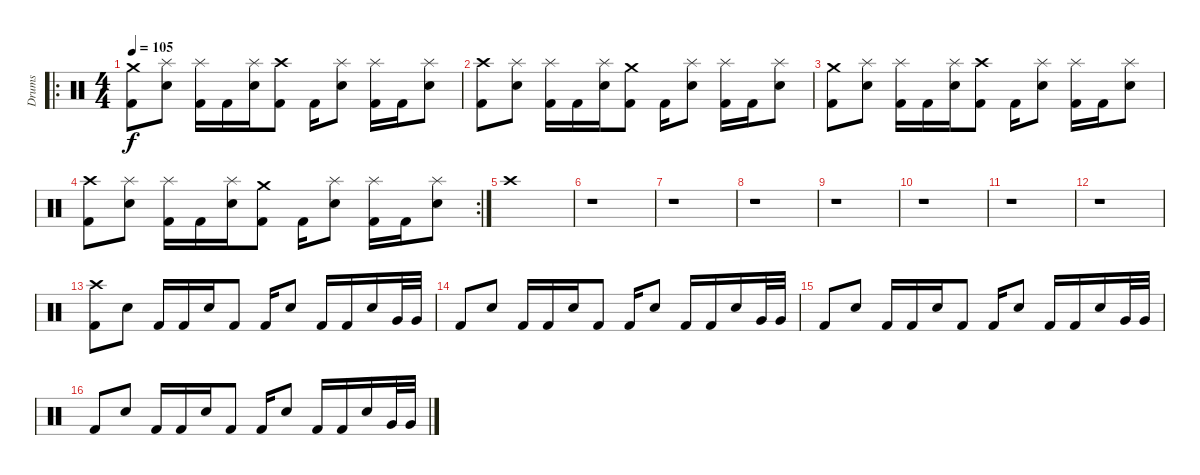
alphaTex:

\track ("Drums" "Drums") {instrument percussion}
\staff {score}
\articulation defaults
\ro
\ts (4 4)
\tempo 105
\clef neutral
\ks c
("Crash medium (hit)" "Kick (hit) 2").8{dy f} ("Splash (hit)" "Electric Snare (hit)").8 ("Splash (hit)" "Kick (hit) 2").16 "Kick (hit) 2".16 ("Splash (hit)" "Electric Snare (hit)").16 ("Crash high (hit)" "Kick (hit) 2").8 "Kick (hit) 2".16 ("Splash (hit)" "Electric Snare (hit)").8 ("Splash (hit)" "Kick (hit) 2").16 "Kick (hit) 2".16 ("Splash (hit)" "Electric Snare (hit)").8 |
("Crash high (hit)" "Kick (hit) 2").8 ("Splash (hit)" "Electric Snare (hit)").8 ("Splash (hit)" "Kick (hit) 2").16 "Kick (hit) 2".16 ("Splash (hit)" "Electric Snare (hit)").16 ("Crash medium (hit)" "Kick (hit) 2").8 "Kick (hit) 2".16 ("Splash (hit)" "Electric Snare (hit)").8 ("Splash (hit)" "Kick (hit) 2").16 "Kick (hit) 2".16 ("Splash (hit)" "Electric Snare (hit)").8 |
("Crash medium (hit)" "Kick (hit) 2").8 ("Splash (hit)" "Electric Snare (hit)").8 ("Splash (hit)" "Kick (hit) 2").16 "Kick (hit) 2".16 ("Splash (hit)" "Electric Snare (hit)").16 ("Crash high (hit)" "Kick (hit) 2").8 "Kick (hit) 2".16 ("Splash (hit)" "Electric Snare (hit)").8 ("Splash (hit)" "Kick (hit) 2").16 "Kick (hit) 2".16 ("Splash (hit)" "Electric Snare (hit)").8 |
\rc 2
("Crash high (hit)" "Kick (hit) 2").8 ("Splash (hit)" "Electric Snare (hit)").8 ("Splash (hit)" "Kick (hit) 2").16 "Kick (hit) 2".16 ("Splash (hit)" "Electric Snare (hit)").16 ("Crash medium (hit)" "Kick (hit) 2").8 "Kick (hit) 2".16 ("Splash (hit)" "Electric Snare (hit)").8 ("Splash (hit)" "Kick (hit) 2").16 "Kick (hit) 2".16 ("Splash (hit)" "Electric Snare (hit)").8 |
"Crash high (hit)".1 |
r.1 |
r.1 |
r.1 |
r.1 |
r.1 |
r.1 |
r.1 |
("Crash high (hit)" "Kick (hit) 2").8 "Electric Snare (hit)".8 "Kick (hit) 2".16 "Kick (hit) 2".16 "Electric Snare (hit)".16 "Kick (hit) 2".8 "Kick (hit) 2".16 "Electric Snare (hit)".8 "Kick (hit) 2".16 "Kick (hit) 2".16 "Electric Snare (hit)".16 "Very Low Tom (hit)".32 "Very Low Tom (hit)".32 |
"Kick (hit) 2".8 "Electric Snare (hit)".8 "Kick (hit) 2".16 "Kick (hit) 2".16 "Electric Snare (hit)".16 "Kick (hit) 2".8 "Kick (hit) 2".16 "Electric Snare (hit)".8 "Kick (hit) 2".16 "Kick (hit) 2".16 "Electric Snare (hit)".16 "Very Low Tom (hit)".32 "Very Low Tom (hit)".32 |
"Kick (hit) 2".8 "Electric Snare (hit)".8 "Kick (hit) 2".16 "Kick (hit) 2".16 "Electric Snare (hit)".16 "Kick (hit) 2".8 "Kick (hit) 2".16 "Electric Snare (hit)".8 "Kick (hit) 2".16 "Kick (hit) 2".16 "Electric Snare (hit)".16 "Very Low Tom (hit)".32 "Very Low Tom (hit)".32 |
"Kick (hit) 2".8 "Electric Snare (hit)".8 "Kick (hit) 2".16 "Kick (hit) 2".16 "Electric Snare (hit)".16 "Kick (hit) 2".8 "Kick (hit) 2".16 "Electric Snare (hit)".8 "Kick (hit) 2".16 "Kick (hit) 2".16 "Electric Snare (hit)".16 "Very Low Tom (hit)".32 "Very Low Tom (hit)".32
